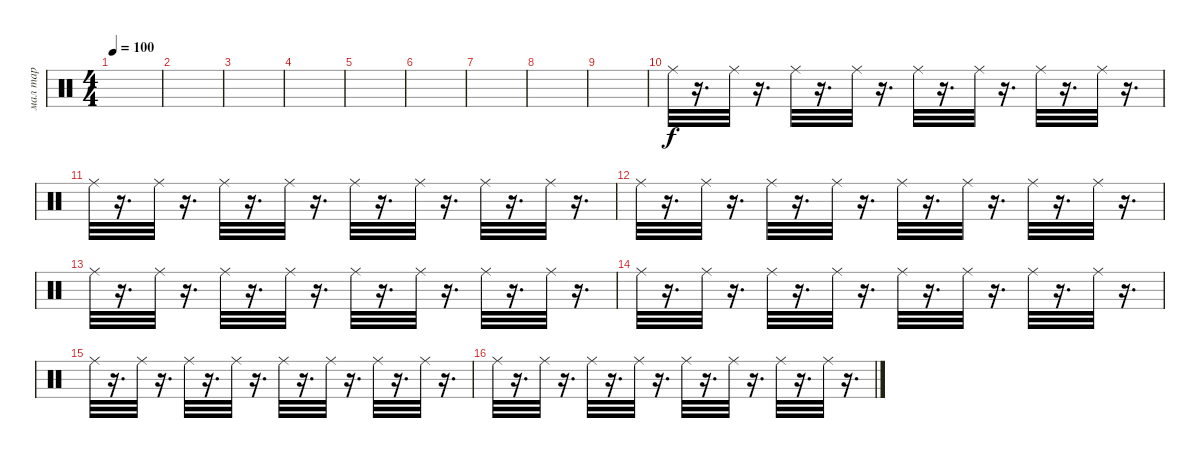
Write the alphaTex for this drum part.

\track ("мал тар" "мал тар") {instrument percussion}
\staff {score}
\articulation defaults
\ts (4 4)
\tempo 100
\clef neutral
\ks c
|
|
|
|
|
|
|
|
|
"Ride (middle)".32 r.16{d} "Ride (middle)".32 r.16{d} "Ride (middle)".32 r.16{d} "Ride (middle)".32 r.16{d} "Ride (middle)".32 r.16{d} "Ride (middle)".32 r.16{d} "Ride (middle)".32 r.16{d} "Ride (middle)".32 r.16{d} |
"Ride (middle)".32 r.16{d} "Ride (middle)".32 r.16{d} "Ride (middle)".32 r.16{d} "Ride (middle)".32 r.16{d} "Ride (middle)".32 r.16{d} "Ride (middle)".32 r.16{d} "Ride (middle)".32 r.16{d} "Ride (middle)".32 r.16{d} |
"Ride (middle)".32 r.16{d} "Ride (middle)".32 r.16{d} "Ride (middle)".32 r.16{d} "Ride (middle)".32 r.16{d} "Ride (middle)".32 r.16{d} "Ride (middle)".32 r.16{d} "Ride (middle)".32 r.16{d} "Ride (middle)".32 r.16{d} |
"Ride (middle)".32 r.16{d} "Ride (middle)".32 r.16{d} "Ride (middle)".32 r.16{d} "Ride (middle)".32 r.16{d} "Ride (middle)".32 r.16{d} "Ride (middle)".32 r.16{d} "Ride (middle)".32 r.16{d} "Ride (middle)".32 r.16{d} |
"Ride (middle)".32 r.16{d} "Ride (middle)".32 r.16{d} "Ride (middle)".32 r.16{d} "Ride (middle)".32 r.16{d} "Ride (middle)".32 r.16{d} "Ride (middle)".32 r.16{d} "Ride (middle)".32 r.16{d} "Ride (middle)".32 r.16{d} |
"Ride (middle)".32 r.16{d} "Ride (middle)".32 r.16{d} "Ride (middle)".32 r.16{d} "Ride (middle)".32 r.16{d} "Ride (middle)".32 r.16{d} "Ride (middle)".32 r.16{d} "Ride (middle)".32 r.16{d} "Ride (middle)".32 r.16{d} |
"Ride (middle)".32 r.16{d} "Ride (middle)".32 r.16{d} "Ride (middle)".32 r.16{d} "Ride (middle)".32 r.16{d} "Ride (middle)".32 r.16{d} "Ride (middle)".32 r.16{d} "Ride (middle)".32 r.16{d} "Ride (middle)".32 r.16{d}
